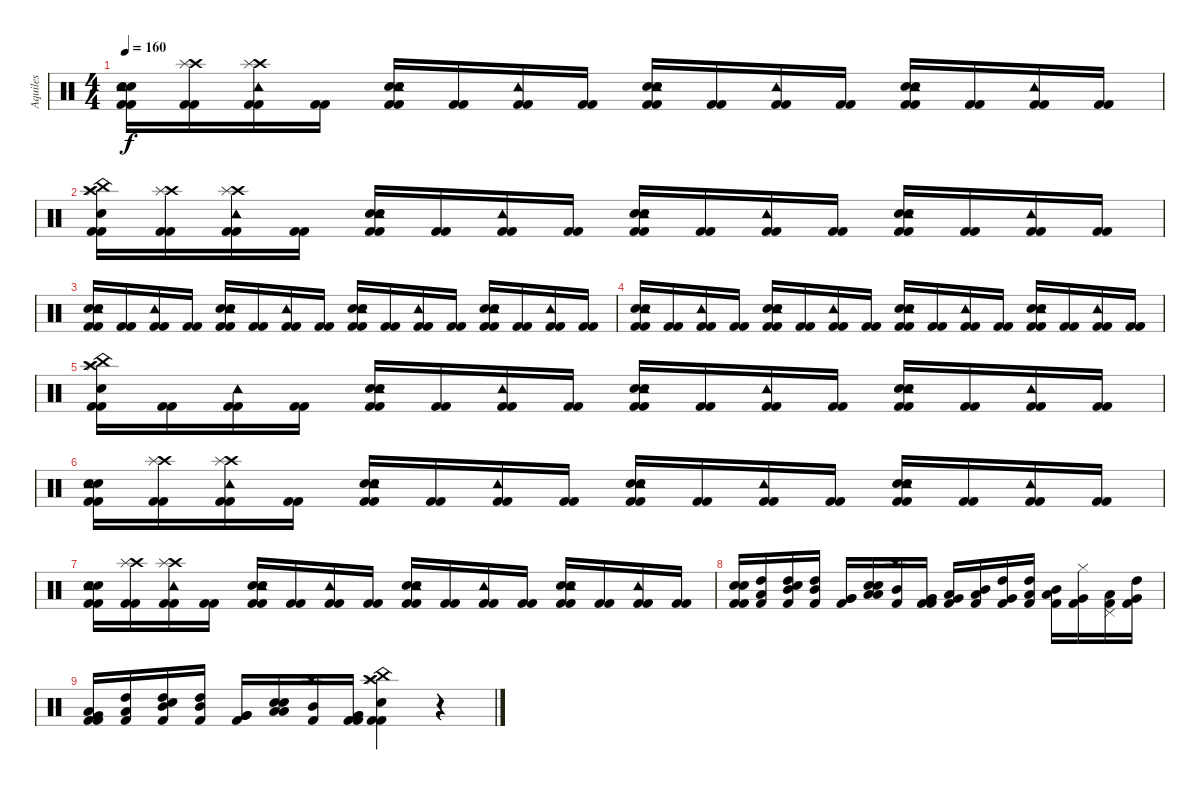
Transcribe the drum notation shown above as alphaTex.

\track ("Aquiles" "Aquiles") {instrument percussion}
\staff {score}
\articulation defaults
\ts (4 4)
\tempo 160
\clef neutral
\ks c
("Kick (hit) 2" "Kick (hit) 2" "Electric Snare (hit)" "Electric Snare (hit)" "Tambourine (hit)").16{dy f} ("Kick (hit) 2" "Kick (hit) 2" "Crash high (hit)" "Splash (hit)").16 ("Kick (hit) 2" "Kick (hit) 2" "Crash high (hit)" "Tambourine (hit)" "Splash (hit)").16 ("Kick (hit) 2" "Kick (hit) 2").16 ("Kick (hit) 2" "Kick (hit) 2" "Electric Snare (hit)" "Electric Snare (hit)" "Tambourine (hit)").16 ("Kick (hit) 2" "Kick (hit) 2").16 ("Kick (hit) 2" "Kick (hit) 2" "Tambourine (hit)").16 ("Kick (hit) 2" "Kick (hit) 2").16 ("Kick (hit) 2" "Kick (hit) 2" "Electric Snare (hit)" "Electric Snare (hit)" "Tambourine (hit)").16 ("Kick (hit) 2" "Kick (hit) 2").16 ("Kick (hit) 2" "Kick (hit) 2" "Tambourine (hit)").16 ("Kick (hit) 2" "Kick (hit) 2").16 ("Kick (hit) 2" "Kick (hit) 2" "Electric Snare (hit)" "Electric Snare (hit)" "Tambourine (hit)").16 ("Kick (hit) 2" "Kick (hit) 2").16 ("Kick (hit) 2" "Kick (hit) 2" "Tambourine (hit)").16 ("Kick (hit) 2" "Kick (hit) 2").16 |
("Kick (hit) 2" "Kick (hit) 2" "Electric Snare (hit)" "Crash high (hit)" "Splash (hit)" "China (hit)").16 ("Kick (hit) 2" "Kick (hit) 2" "Crash high (hit)" "Splash (hit)").16 ("Kick (hit) 2" "Kick (hit) 2" "Crash high (hit)" "Tambourine (hit)" "Splash (hit)").16 ("Kick (hit) 2" "Kick (hit) 2").16 ("Kick (hit) 2" "Kick (hit) 2" "Electric Snare (hit)" "Electric Snare (hit)" "Tambourine (hit)").16 ("Kick (hit) 2" "Kick (hit) 2").16 ("Kick (hit) 2" "Kick (hit) 2" "Tambourine (hit)").16 ("Kick (hit) 2" "Kick (hit) 2").16 ("Kick (hit) 2" "Kick (hit) 2" "Electric Snare (hit)" "Electric Snare (hit)" "Tambourine (hit)").16 ("Kick (hit) 2" "Kick (hit) 2").16 ("Kick (hit) 2" "Kick (hit) 2" "Tambourine (hit)").16 ("Kick (hit) 2" "Kick (hit) 2").16 ("Kick (hit) 2" "Kick (hit) 2" "Electric Snare (hit)" "Electric Snare (hit)" "Tambourine (hit)").16 ("Kick (hit) 2" "Kick (hit) 2").16 ("Kick (hit) 2" "Kick (hit) 2" "Tambourine (hit)").16 ("Kick (hit) 2" "Kick (hit) 2").16 |
("Kick (hit) 2" "Kick (hit) 2" "Electric Snare (hit)" "Electric Snare (hit)" "Tambourine (hit)").16 ("Kick (hit) 2" "Kick (hit) 2").16 ("Kick (hit) 2" "Kick (hit) 2" "Tambourine (hit)").16 ("Kick (hit) 2" "Kick (hit) 2").16 ("Kick (hit) 2" "Kick (hit) 2" "Electric Snare (hit)" "Electric Snare (hit)" "Tambourine (hit)").16 ("Kick (hit) 2" "Kick (hit) 2").16 ("Kick (hit) 2" "Kick (hit) 2" "Tambourine (hit)").16 ("Kick (hit) 2" "Kick (hit) 2").16 ("Kick (hit) 2" "Kick (hit) 2" "Electric Snare (hit)" "Electric Snare (hit)" "Tambourine (hit)").16 ("Kick (hit) 2" "Kick (hit) 2").16 ("Kick (hit) 2" "Kick (hit) 2" "Tambourine (hit)").16 ("Kick (hit) 2" "Kick (hit) 2").16 ("Kick (hit) 2" "Kick (hit) 2" "Electric Snare (hit)" "Electric Snare (hit)" "Tambourine (hit)").16 ("Kick (hit) 2" "Kick (hit) 2").16 ("Kick (hit) 2" "Kick (hit) 2" "Tambourine (hit)").16 ("Kick (hit) 2" "Kick (hit) 2").16 |
("Kick (hit) 2" "Kick (hit) 2" "Electric Snare (hit)" "Electric Snare (hit)" "Tambourine (hit)").16 ("Kick (hit) 2" "Kick (hit) 2").16 ("Kick (hit) 2" "Kick (hit) 2" "Tambourine (hit)").16 ("Kick (hit) 2" "Kick (hit) 2").16 ("Kick (hit) 2" "Kick (hit) 2" "Electric Snare (hit)" "Electric Snare (hit)" "Tambourine (hit)").16 ("Kick (hit) 2" "Kick (hit) 2").16 ("Kick (hit) 2" "Kick (hit) 2" "Tambourine (hit)").16 ("Kick (hit) 2" "Kick (hit) 2").16 ("Kick (hit) 2" "Kick (hit) 2" "Electric Snare (hit)" "Electric Snare (hit)" "Tambourine (hit)").16 ("Kick (hit) 2" "Kick (hit) 2").16 ("Kick (hit) 2" "Kick (hit) 2" "Tambourine (hit)").16 ("Kick (hit) 2" "Kick (hit) 2").16 ("Kick (hit) 2" "Kick (hit) 2" "Electric Snare (hit)" "Electric Snare (hit)" "Tambourine (hit)").16 ("Kick (hit) 2" "Kick (hit) 2").16 ("Kick (hit) 2" "Kick (hit) 2" "Tambourine (hit)").16 ("Kick (hit) 2" "Kick (hit) 2").16 |
("Kick (hit) 2" "Kick (hit) 2" "Electric Snare (hit)" "Crash high (hit)" "Splash (hit)" "China (hit)").16 ("Kick (hit) 2" "Kick (hit) 2").16 ("Kick (hit) 2" "Kick (hit) 2" "Tambourine (hit)").16 ("Kick (hit) 2" "Kick (hit) 2").16 ("Kick (hit) 2" "Kick (hit) 2" "Electric Snare (hit)" "Electric Snare (hit)" "Tambourine (hit)").16 ("Kick (hit) 2" "Kick (hit) 2").16 ("Kick (hit) 2" "Kick (hit) 2" "Tambourine (hit)").16 ("Kick (hit) 2" "Kick (hit) 2").16 ("Kick (hit) 2" "Kick (hit) 2" "Electric Snare (hit)" "Electric Snare (hit)" "Tambourine (hit)").16 ("Kick (hit) 2" "Kick (hit) 2").16 ("Kick (hit) 2" "Kick (hit) 2" "Tambourine (hit)").16 ("Kick (hit) 2" "Kick (hit) 2").16 ("Kick (hit) 2" "Kick (hit) 2" "Electric Snare (hit)" "Electric Snare (hit)" "Tambourine (hit)").16 ("Kick (hit) 2" "Kick (hit) 2").16 ("Kick (hit) 2" "Kick (hit) 2" "Tambourine (hit)").16 ("Kick (hit) 2" "Kick (hit) 2").16 |
("Kick (hit) 2" "Kick (hit) 2" "Electric Snare (hit)" "Electric Snare (hit)" "Tambourine (hit)").16 ("Kick (hit) 2" "Kick (hit) 2" "Crash high (hit)" "Splash (hit)").16 ("Kick (hit) 2" "Kick (hit) 2" "Crash high (hit)" "Tambourine (hit)" "Splash (hit)").16 ("Kick (hit) 2" "Kick (hit) 2").16 ("Kick (hit) 2" "Kick (hit) 2" "Electric Snare (hit)" "Electric Snare (hit)" "Tambourine (hit)").16 ("Kick (hit) 2" "Kick (hit) 2").16 ("Kick (hit) 2" "Kick (hit) 2" "Tambourine (hit)").16 ("Kick (hit) 2" "Kick (hit) 2").16 ("Kick (hit) 2" "Kick (hit) 2" "Electric Snare (hit)" "Electric Snare (hit)" "Tambourine (hit)").16 ("Kick (hit) 2" "Kick (hit) 2").16 ("Kick (hit) 2" "Kick (hit) 2" "Tambourine (hit)").16 ("Kick (hit) 2" "Kick (hit) 2").16 ("Kick (hit) 2" "Kick (hit) 2" "Electric Snare (hit)" "Electric Snare (hit)" "Tambourine (hit)").16 ("Kick (hit) 2" "Kick (hit) 2").16 ("Kick (hit) 2" "Kick (hit) 2" "Tambourine (hit)").16 ("Kick (hit) 2" "Kick (hit) 2").16 |
("Kick (hit) 2" "Kick (hit) 2" "Electric Snare (hit)" "Electric Snare (hit)" "Tambourine (hit)").16 ("Kick (hit) 2" "Kick (hit) 2" "Crash high (hit)" "Splash (hit)").16 ("Kick (hit) 2" "Kick (hit) 2" "Crash high (hit)" "Tambourine (hit)" "Splash (hit)").16 ("Kick (hit) 2" "Kick (hit) 2").16 ("Kick (hit) 2" "Kick (hit) 2" "Electric Snare (hit)" "Electric Snare (hit)" "Tambourine (hit)").16 ("Kick (hit) 2" "Kick (hit) 2").16 ("Kick (hit) 2" "Kick (hit) 2" "Tambourine (hit)").16 ("Kick (hit) 2" "Kick (hit) 2").16 ("Kick (hit) 2" "Kick (hit) 2" "Electric Snare (hit)" "Electric Snare (hit)" "Tambourine (hit)").16 ("Kick (hit) 2" "Kick (hit) 2").16 ("Kick (hit) 2" "Kick (hit) 2" "Tambourine (hit)").16 ("Kick (hit) 2" "Kick (hit) 2").16 ("Kick (hit) 2" "Kick (hit) 2" "Electric Snare (hit)" "Electric Snare (hit)" "Tambourine (hit)").16 ("Kick (hit) 2" "Kick (hit) 2").16 ("Kick (hit) 2" "Kick (hit) 2" "Tambourine (hit)").16 ("Kick (hit) 2" "Kick (hit) 2").16 |
("Kick (hit) 2" "Kick (hit) 2" "Electric Snare (hit)" "Electric Snare (hit)").16 ("Kick (hit) 2" "Low Floor Tom (hit)" "High Tom (hit)").16 ("Electric Snare (hit)" "Kick (hit) 2" "Mid Tom (hit)" "High Tom (hit)").16 ("Kick (hit) 2" "Mid Tom (hit)" "High Tom (hit)").16 ("Kick (hit) 2" "Very Low Tom (hit)" "Very Low Tom (hit)").16 ("Electric Snare (hit)" "Electric Snare (hit)" "Low Floor Tom (hit)" "Low Floor Tom (hit)").16 ("Kick (hit) 2" "Mid Tom (hit)" "Crash high (hit)").16 ("Kick (hit) 2" "Kick (hit) 2" "Very Low Tom (hit)" "Very Low Tom (hit)").16 ("Kick (hit) 2" "Low Tom (hit)" "Very Low Tom (hit)").16 ("Kick (hit) 2" "Mid Tom (hit)" "Low Tom (hit)").16 ("Kick (hit) 2" "High Tom (hit)" "Very Low Tom (hit)").16 ("Kick (hit) 2" "High Tom (hit)" "Low Tom (hit)").16 ("Kick (hit) 2" "Low Tom (hit)" "Mid Tom (hit)").16 ("Kick (hit) 2" "Very Low Tom (hit)" "Hi-Hat (closed)").16 ("Kick (hit) 2" "Pedal Hi-Hat (hit)" "Low Tom (hit)").16 ("Kick (hit) 2" "Very Low Tom (hit)" "High Tom (hit)").16 |
("Kick (hit) 2" "Kick (hit) 2" "Very Low Tom (hit)" "Low Floor Tom (hit)").16 ("Kick (hit) 2" "Low Floor Tom (hit)" "High Tom (hit)").16 ("Electric Snare (hit)" "Kick (hit) 2" "Mid Tom (hit)" "High Tom (hit)").16 ("Kick (hit) 2" "Mid Tom (hit)" "High Tom (hit)").16 ("Kick (hit) 2" "Very Low Tom (hit)" "Very Low Tom (hit)").16 ("Electric Snare (hit)" "Electric Snare (hit)" "Low Floor Tom (hit)" "Low Floor Tom (hit)").16 ("Kick (hit) 2" "Mid Tom (hit)" "Crash high (hit)").16 ("Kick (hit) 2" "Kick (hit) 2" "Very Low Tom (hit)" "Very Low Tom (hit)").16 ("Electric Snare (hit)" "Kick (hit) 2" "Kick (hit) 2" "Splash (hit)" "China (hit)" "Crash high (hit)").4 r.4
